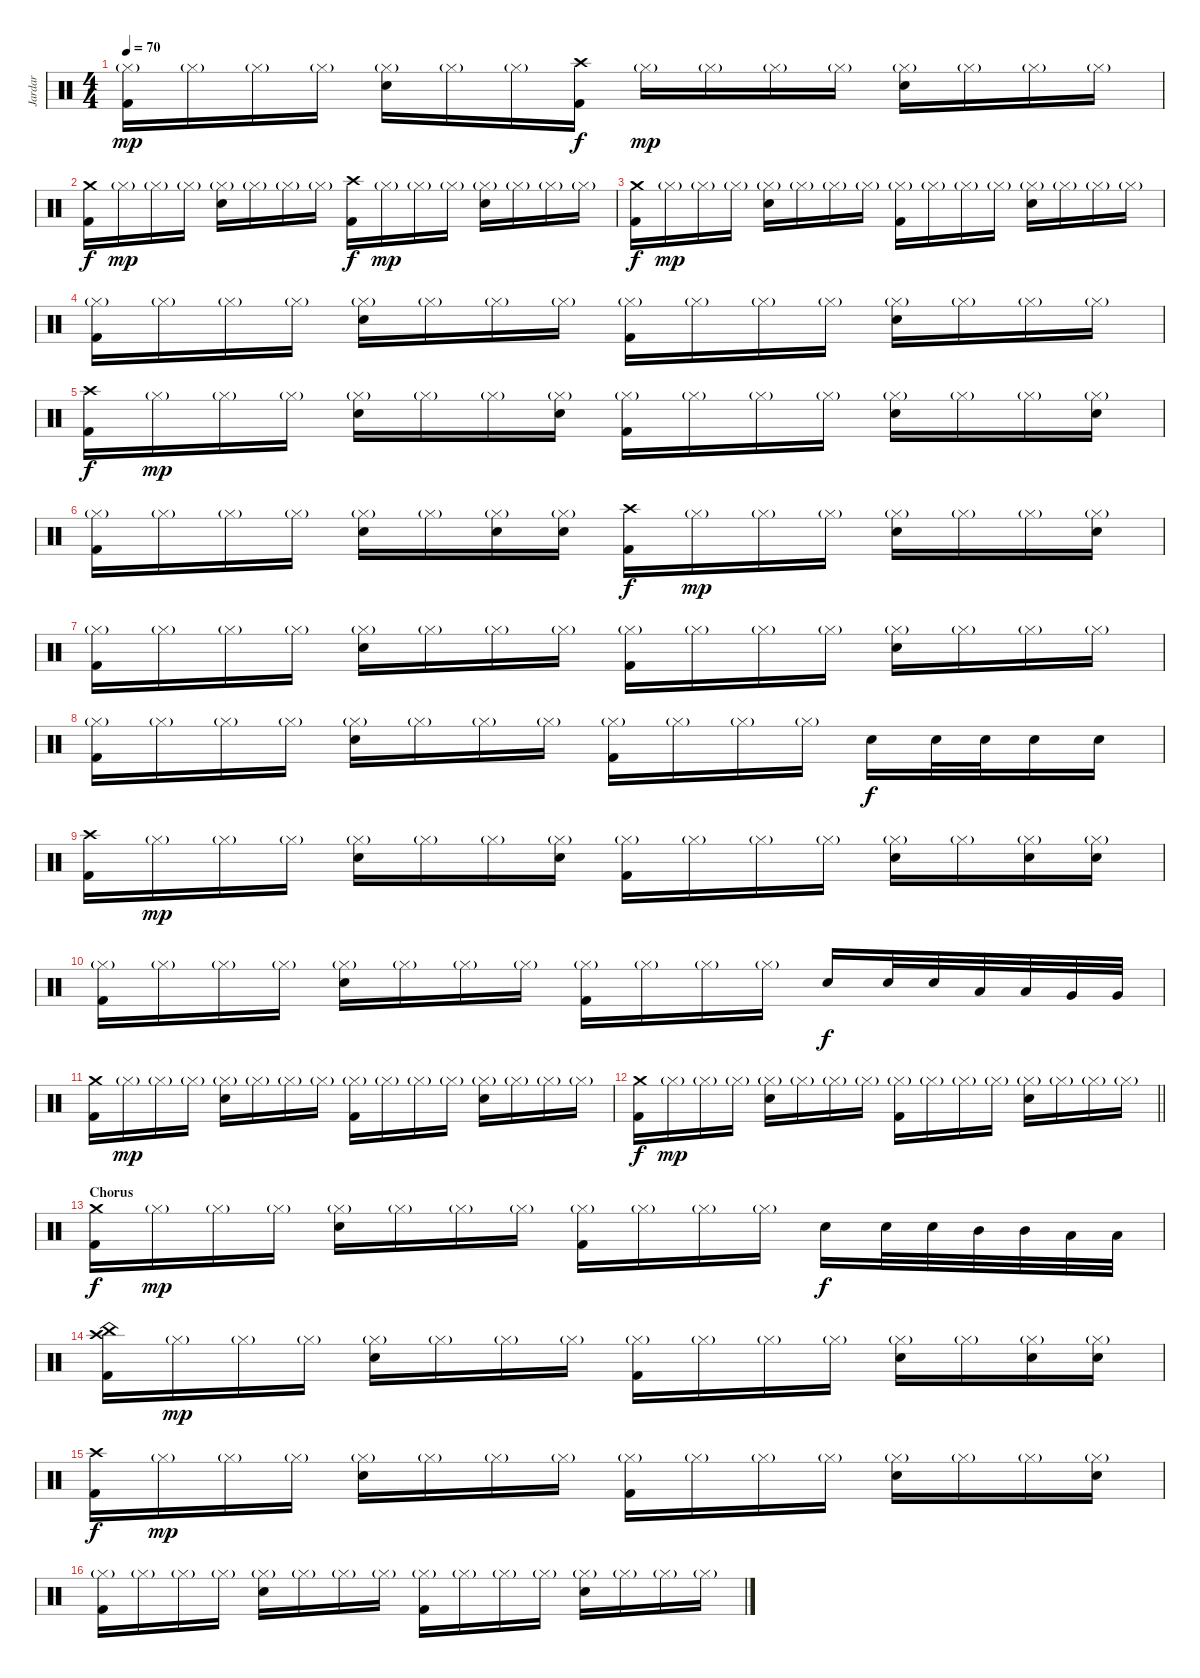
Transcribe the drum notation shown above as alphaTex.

\track ("Jardar" "Jardar") {instrument percussion}
\staff {score}
\articulation defaults
\ts (4 4)
\tempo 70
\clef neutral
\ks c
("Hi-Hat (closed)"{g} "Kick (hit) 2").16{dy mp} "Hi-Hat (closed)"{g}.16 "Hi-Hat (closed)"{g}.16 "Hi-Hat (closed)"{g}.16 ("Hi-Hat (closed)"{g} "Electric Snare (hit)").16 "Hi-Hat (closed)"{g}.16 "Hi-Hat (closed)"{g}.16 ("Crash high (hit)" "Kick (hit) 2").16{dy f} "Hi-Hat (closed)"{g}.16{dy mp} "Hi-Hat (closed)"{g}.16 "Hi-Hat (closed)"{g}.16 "Hi-Hat (closed)"{g}.16 ("Hi-Hat (closed)"{g} "Electric Snare (hit)").16 "Hi-Hat (closed)"{g}.16 "Hi-Hat (closed)"{g}.16 "Hi-Hat (closed)"{g}.16 |
("Crash medium (hit)" "Kick (hit) 2").16{dy f} "Hi-Hat (closed)"{g}.16{dy mp} "Hi-Hat (closed)"{g}.16 "Hi-Hat (closed)"{g}.16 ("Hi-Hat (closed)"{g} "Electric Snare (hit)").16 "Hi-Hat (closed)"{g}.16 "Hi-Hat (closed)"{g}.16 "Hi-Hat (closed)"{g}.16 ("Crash high (hit)" "Kick (hit) 2").16{dy f} "Hi-Hat (closed)"{g}.16{dy mp} "Hi-Hat (closed)"{g}.16 "Hi-Hat (closed)"{g}.16 ("Hi-Hat (closed)"{g} "Electric Snare (hit)").16 "Hi-Hat (closed)"{g}.16 "Hi-Hat (closed)"{g}.16 "Hi-Hat (closed)"{g}.16 |
("Crash medium (hit)" "Kick (hit) 2").16{dy f} "Hi-Hat (closed)"{g}.16{dy mp} "Hi-Hat (closed)"{g}.16 "Hi-Hat (closed)"{g}.16 ("Hi-Hat (closed)"{g} "Electric Snare (hit)").16 "Hi-Hat (closed)"{g}.16 "Hi-Hat (closed)"{g}.16 "Hi-Hat (closed)"{g}.16 ("Hi-Hat (closed)"{g} "Kick (hit) 2").16 "Hi-Hat (closed)"{g}.16 "Hi-Hat (closed)"{g}.16 "Hi-Hat (closed)"{g}.16 ("Hi-Hat (closed)"{g} "Electric Snare (hit)").16 "Hi-Hat (closed)"{g}.16 "Hi-Hat (closed)"{g}.16 "Hi-Hat (closed)"{g}.16 |
("Hi-Hat (closed)"{g} "Kick (hit) 2").16 "Hi-Hat (closed)"{g}.16 "Hi-Hat (closed)"{g}.16 "Hi-Hat (closed)"{g}.16 ("Hi-Hat (closed)"{g} "Electric Snare (hit)").16 "Hi-Hat (closed)"{g}.16 "Hi-Hat (closed)"{g}.16 "Hi-Hat (closed)"{g}.16 ("Hi-Hat (closed)"{g} "Kick (hit) 2").16 "Hi-Hat (closed)"{g}.16 "Hi-Hat (closed)"{g}.16 "Hi-Hat (closed)"{g}.16 ("Hi-Hat (closed)"{g} "Electric Snare (hit)").16 "Hi-Hat (closed)"{g}.16 "Hi-Hat (closed)"{g}.16 "Hi-Hat (closed)"{g}.16 |
("Crash high (hit)" "Kick (hit) 2").16{dy f} "Hi-Hat (closed)"{g}.16{dy mp} "Hi-Hat (closed)"{g}.16 "Hi-Hat (closed)"{g}.16 ("Hi-Hat (closed)"{g} "Electric Snare (hit)").16 "Hi-Hat (closed)"{g}.16 "Hi-Hat (closed)"{g}.16 ("Hi-Hat (closed)"{g} "Electric Snare (hit)").16 ("Hi-Hat (closed)"{g} "Kick (hit) 2").16 "Hi-Hat (closed)"{g}.16 "Hi-Hat (closed)"{g}.16 "Hi-Hat (closed)"{g}.16 ("Hi-Hat (closed)"{g} "Electric Snare (hit)").16 "Hi-Hat (closed)"{g}.16 "Hi-Hat (closed)"{g}.16 ("Hi-Hat (closed)"{g} "Electric Snare (hit)").16 |
("Hi-Hat (closed)"{g} "Kick (hit) 2").16 "Hi-Hat (closed)"{g}.16 "Hi-Hat (closed)"{g}.16 "Hi-Hat (closed)"{g}.16 ("Hi-Hat (closed)"{g} "Electric Snare (hit)").16 "Hi-Hat (closed)"{g}.16 ("Hi-Hat (closed)"{g} "Electric Snare (hit)").16 ("Hi-Hat (closed)"{g} "Electric Snare (hit)").16 ("Crash high (hit)" "Kick (hit) 2").16{dy f} "Hi-Hat (closed)"{g}.16{dy mp} "Hi-Hat (closed)"{g}.16 "Hi-Hat (closed)"{g}.16 ("Hi-Hat (closed)"{g} "Electric Snare (hit)").16 "Hi-Hat (closed)"{g}.16 "Hi-Hat (closed)"{g}.16 ("Hi-Hat (closed)"{g} "Electric Snare (hit)").16 |
("Hi-Hat (closed)"{g} "Kick (hit) 2").16 "Hi-Hat (closed)"{g}.16 "Hi-Hat (closed)"{g}.16 "Hi-Hat (closed)"{g}.16 ("Hi-Hat (closed)"{g} "Electric Snare (hit)").16 "Hi-Hat (closed)"{g}.16 "Hi-Hat (closed)"{g}.16 "Hi-Hat (closed)"{g}.16 ("Hi-Hat (closed)"{g} "Kick (hit) 2").16 "Hi-Hat (closed)"{g}.16 "Hi-Hat (closed)"{g}.16 "Hi-Hat (closed)"{g}.16 ("Hi-Hat (closed)"{g} "Electric Snare (hit)").16 "Hi-Hat (closed)"{g}.16 "Hi-Hat (closed)"{g}.16 "Hi-Hat (closed)"{g}.16 |
("Hi-Hat (closed)"{g} "Kick (hit) 2").16 "Hi-Hat (closed)"{g}.16 "Hi-Hat (closed)"{g}.16 "Hi-Hat (closed)"{g}.16 ("Hi-Hat (closed)"{g} "Electric Snare (hit)").16 "Hi-Hat (closed)"{g}.16 "Hi-Hat (closed)"{g}.16 "Hi-Hat (closed)"{g}.16 ("Hi-Hat (closed)"{g} "Kick (hit) 2").16 "Hi-Hat (closed)"{g}.16 "Hi-Hat (closed)"{g}.16 "Hi-Hat (closed)"{g}.16 "Electric Snare (hit)".16{dy f} "Electric Snare (hit)".32 "Electric Snare (hit)".32 "Electric Snare (hit)".16 "Electric Snare (hit)".16 |
("Crash high (hit)" "Kick (hit) 2").16 "Hi-Hat (closed)"{g}.16{dy mp} "Hi-Hat (closed)"{g}.16 "Hi-Hat (closed)"{g}.16 ("Hi-Hat (closed)"{g} "Electric Snare (hit)").16 "Hi-Hat (closed)"{g}.16 "Hi-Hat (closed)"{g}.16 ("Hi-Hat (closed)"{g} "Electric Snare (hit)").16 ("Hi-Hat (closed)"{g} "Kick (hit) 2").16 "Hi-Hat (closed)"{g}.16 "Hi-Hat (closed)"{g}.16 "Hi-Hat (closed)"{g}.16 ("Hi-Hat (closed)"{g} "Electric Snare (hit)").16 "Hi-Hat (closed)"{g}.16 ("Hi-Hat (closed)"{g} "Electric Snare (hit)").16 ("Hi-Hat (closed)"{g} "Electric Snare (hit)").16 |
("Hi-Hat (closed)"{g} "Kick (hit) 2").16 "Hi-Hat (closed)"{g}.16 "Hi-Hat (closed)"{g}.16 "Hi-Hat (closed)"{g}.16 ("Hi-Hat (closed)"{g} "Electric Snare (hit)").16 "Hi-Hat (closed)"{g}.16 "Hi-Hat (closed)"{g}.16 "Hi-Hat (closed)"{g}.16 ("Hi-Hat (closed)"{g} "Kick (hit) 2").16 "Hi-Hat (closed)"{g}.16 "Hi-Hat (closed)"{g}.16 "Hi-Hat (closed)"{g}.16 "Electric Snare (hit)".16{dy f} "Electric Snare (hit)".32 "Electric Snare (hit)".32 "Low Tom (hit)".32 "Low Tom (hit)".32 "Very Low Tom (hit)".32 "Very Low Tom (hit)".32 |
("Crash medium (hit)" "Kick (hit) 2").16 "Hi-Hat (closed)"{g}.16{dy mp} "Hi-Hat (closed)"{g}.16 "Hi-Hat (closed)"{g}.16 ("Hi-Hat (closed)"{g} "Electric Snare (hit)").16 "Hi-Hat (closed)"{g}.16 "Hi-Hat (closed)"{g}.16 "Hi-Hat (closed)"{g}.16 ("Hi-Hat (closed)"{g} "Kick (hit) 2").16 "Hi-Hat (closed)"{g}.16 "Hi-Hat (closed)"{g}.16 "Hi-Hat (closed)"{g}.16 ("Hi-Hat (closed)"{g} "Electric Snare (hit)").16 "Hi-Hat (closed)"{g}.16 "Hi-Hat (closed)"{g}.16 "Hi-Hat (closed)"{g}.16 |
\barLineRight lightlight
("Crash medium (hit)" "Kick (hit) 2").16{dy f} "Hi-Hat (closed)"{g}.16{dy mp} "Hi-Hat (closed)"{g}.16 "Hi-Hat (closed)"{g}.16 ("Hi-Hat (closed)"{g} "Electric Snare (hit)").16 "Hi-Hat (closed)"{g}.16 "Hi-Hat (closed)"{g}.16 "Hi-Hat (closed)"{g}.16 ("Hi-Hat (closed)"{g} "Kick (hit) 2").16 "Hi-Hat (closed)"{g}.16 "Hi-Hat (closed)"{g}.16 "Hi-Hat (closed)"{g}.16 ("Hi-Hat (closed)"{g} "Electric Snare (hit)").16 "Hi-Hat (closed)"{g}.16 "Hi-Hat (closed)"{g}.16 "Hi-Hat (closed)"{g}.16 |
\section ("" "Chorus")
("Crash medium (hit)" "Kick (hit) 2").16{dy f} "Hi-Hat (closed)"{g}.16{dy mp} "Hi-Hat (closed)"{g}.16 "Hi-Hat (closed)"{g}.16 ("Hi-Hat (closed)"{g} "Electric Snare (hit)").16 "Hi-Hat (closed)"{g}.16 "Hi-Hat (closed)"{g}.16 "Hi-Hat (closed)"{g}.16 ("Hi-Hat (closed)"{g} "Kick (hit) 2").16 "Hi-Hat (closed)"{g}.16 "Hi-Hat (closed)"{g}.16 "Hi-Hat (closed)"{g}.16 "Electric Snare (hit)".16{dy f} "Electric Snare (hit)".32 "Electric Snare (hit)".32 "Mid Tom (hit)".32 "Mid Tom (hit)".32 "Low Tom (hit)".32 "Low Tom (hit)".32 |
("Crash high (hit)" "China (hit)" "Kick (hit) 2").16 "Hi-Hat (closed)"{g}.16{dy mp} "Hi-Hat (closed)"{g}.16 "Hi-Hat (closed)"{g}.16 ("Hi-Hat (closed)"{g} "Electric Snare (hit)").16 "Hi-Hat (closed)"{g}.16 "Hi-Hat (closed)"{g}.16 "Hi-Hat (closed)"{g}.16 ("Hi-Hat (closed)"{g} "Kick (hit) 2").16 "Hi-Hat (closed)"{g}.16 "Hi-Hat (closed)"{g}.16 "Hi-Hat (closed)"{g}.16 ("Hi-Hat (closed)"{g} "Electric Snare (hit)").16 "Hi-Hat (closed)"{g}.16 ("Hi-Hat (closed)"{g} "Electric Snare (hit)").16 ("Hi-Hat (closed)"{g} "Electric Snare (hit)").16 |
("Crash high (hit)" "Kick (hit) 2").16{dy f} "Hi-Hat (closed)"{g}.16{dy mp} "Hi-Hat (closed)"{g}.16 "Hi-Hat (closed)"{g}.16 ("Hi-Hat (closed)"{g} "Electric Snare (hit)").16 "Hi-Hat (closed)"{g}.16 "Hi-Hat (closed)"{g}.16 "Hi-Hat (closed)"{g}.16 ("Hi-Hat (closed)"{g} "Kick (hit) 2").16 "Hi-Hat (closed)"{g}.16 "Hi-Hat (closed)"{g}.16 "Hi-Hat (closed)"{g}.16 ("Hi-Hat (closed)"{g} "Electric Snare (hit)").16 "Hi-Hat (closed)"{g}.16 "Hi-Hat (closed)"{g}.16 ("Hi-Hat (closed)"{g} "Electric Snare (hit)").16 |
("Hi-Hat (closed)"{g} "Kick (hit) 2").16 "Hi-Hat (closed)"{g}.16 "Hi-Hat (closed)"{g}.16 "Hi-Hat (closed)"{g}.16 ("Hi-Hat (closed)"{g} "Electric Snare (hit)").16 "Hi-Hat (closed)"{g}.16 "Hi-Hat (closed)"{g}.16 "Hi-Hat (closed)"{g}.16 ("Hi-Hat (closed)"{g} "Kick (hit) 2").16 "Hi-Hat (closed)"{g}.16 "Hi-Hat (closed)"{g}.16 "Hi-Hat (closed)"{g}.16 ("Hi-Hat (closed)"{g} "Electric Snare (hit)").16 "Hi-Hat (closed)"{g}.16 "Hi-Hat (closed)"{g}.16 "Hi-Hat (closed)"{g}.16
